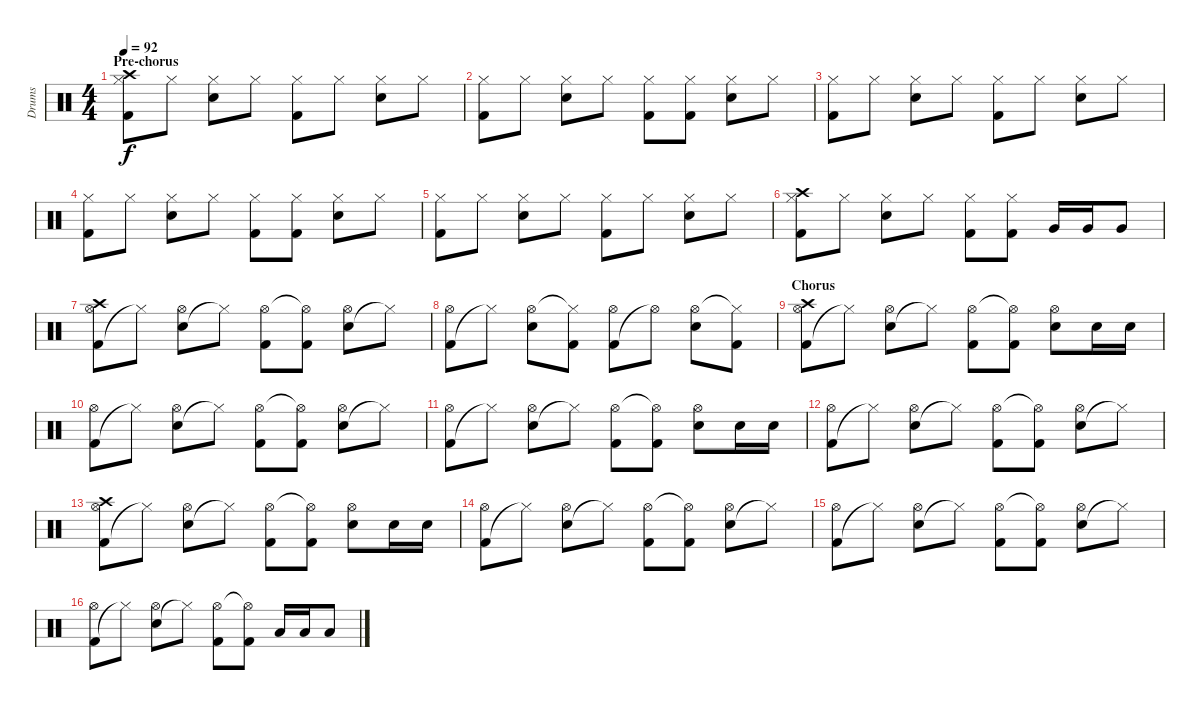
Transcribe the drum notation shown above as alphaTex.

\track ("Drums" "Drums") {instrument percussion}
\staff {score}
\articulation defaults
\ts (4 4)
\section ("" "Pre-chorus")
\tempo 92
\clef neutral
\ks c
("Kick (hit) 2" "Hi-Hat (closed)" "Crash high (hit)").8{dy f} "Hi-Hat (closed)".8 ("Electric Snare (hit)" "Hi-Hat (closed)").8 "Hi-Hat (closed)".8 ("Kick (hit) 2" "Hi-Hat (closed)").8 "Hi-Hat (closed)".8 ("Electric Snare (hit)" "Hi-Hat (closed)").8 "Hi-Hat (closed)".8 |
("Kick (hit) 2" "Hi-Hat (closed)").8 "Hi-Hat (closed)".8 ("Electric Snare (hit)" "Hi-Hat (closed)").8 "Hi-Hat (closed)".8 ("Kick (hit) 2" "Hi-Hat (closed)").8 ("Kick (hit) 2" "Hi-Hat (closed)").8 ("Electric Snare (hit)" "Hi-Hat (closed)").8 "Hi-Hat (closed)".8 |
("Kick (hit) 2" "Hi-Hat (closed)").8 "Hi-Hat (closed)".8 ("Electric Snare (hit)" "Hi-Hat (closed)").8 "Hi-Hat (closed)".8 ("Kick (hit) 2" "Hi-Hat (closed)").8 "Hi-Hat (closed)".8 ("Electric Snare (hit)" "Hi-Hat (closed)").8 "Hi-Hat (closed)".8 |
("Kick (hit) 2" "Hi-Hat (closed)").8 "Hi-Hat (closed)".8 ("Electric Snare (hit)" "Hi-Hat (closed)").8 "Hi-Hat (closed)".8 ("Kick (hit) 2" "Hi-Hat (closed)").8 ("Kick (hit) 2" "Hi-Hat (closed)").8 ("Electric Snare (hit)" "Hi-Hat (closed)").8 "Hi-Hat (closed)".8 |
("Kick (hit) 2" "Hi-Hat (closed)").8 "Hi-Hat (closed)".8 ("Electric Snare (hit)" "Hi-Hat (closed)").8 "Hi-Hat (closed)".8 ("Kick (hit) 2" "Hi-Hat (closed)").8 "Hi-Hat (closed)".8 ("Electric Snare (hit)" "Hi-Hat (closed)").8 "Hi-Hat (closed)".8 |
("Kick (hit) 2" "Hi-Hat (closed)" "Crash high (hit)").8 "Hi-Hat (closed)".8 ("Electric Snare (hit)" "Hi-Hat (closed)").8 "Hi-Hat (closed)".8 ("Kick (hit) 2" "Hi-Hat (closed)").8 ("Kick (hit) 2" "Hi-Hat (closed)").8 "Very Low Tom (hit)".16 "Very Low Tom (hit)".16 "Very Low Tom (hit)".8 |
("Kick (hit) 2" "Hi-Hat (open)" "Crash high (hit)").8 "Hi-Hat (closed)"{t}.8 ("Electric Snare (hit)" "Hi-Hat (open)").8 "Hi-Hat (closed)"{t}.8 ("Kick (hit) 2" "Hi-Hat (open)").8 ("Kick (hit) 2" "Hi-Hat (open)"{t}).8 ("Electric Snare (hit)" "Hi-Hat (open)").8 "Hi-Hat (closed)"{t}.8 |
("Kick (hit) 2" "Hi-Hat (open)").8 "Hi-Hat (closed)"{t}.8 ("Electric Snare (hit)" "Hi-Hat (open)").8 ("Kick (hit) 2" "Hi-Hat (closed)"{t}).8 ("Kick (hit) 2" "Hi-Hat (open)").8 "Hi-Hat (open)"{t}.8 ("Electric Snare (hit)" "Hi-Hat (open)").8 ("Kick (hit) 2" "Hi-Hat (closed)"{t}).8 |
\section ("" "Chorus")
("Kick (hit) 2" "Hi-Hat (open)" "Crash high (hit)").8 "Hi-Hat (closed)"{t}.8 ("Electric Snare (hit)" "Hi-Hat (open)").8 "Hi-Hat (closed)"{t}.8 ("Kick (hit) 2" "Hi-Hat (open)").8 ("Kick (hit) 2" "Hi-Hat (open)"{t}).8 ("Electric Snare (hit)" "Hi-Hat (open)").8 "Electric Snare (hit)".16 "Electric Snare (hit)".16 |
("Kick (hit) 2" "Hi-Hat (open)").8 "Hi-Hat (closed)"{t}.8 ("Electric Snare (hit)" "Hi-Hat (open)").8 "Hi-Hat (closed)"{t}.8 ("Kick (hit) 2" "Hi-Hat (open)").8 ("Kick (hit) 2" "Hi-Hat (open)"{t}).8 ("Electric Snare (hit)" "Hi-Hat (open)").8 "Hi-Hat (closed)"{t}.8 |
("Kick (hit) 2" "Hi-Hat (open)").8 "Hi-Hat (closed)"{t}.8 ("Electric Snare (hit)" "Hi-Hat (open)").8 "Hi-Hat (closed)"{t}.8 ("Kick (hit) 2" "Hi-Hat (open)").8 ("Kick (hit) 2" "Hi-Hat (open)"{t}).8 ("Electric Snare (hit)" "Hi-Hat (open)").8 "Electric Snare (hit)".16 "Electric Snare (hit)".16 |
("Kick (hit) 2" "Hi-Hat (open)").8 "Hi-Hat (closed)"{t}.8 ("Electric Snare (hit)" "Hi-Hat (open)").8 "Hi-Hat (closed)"{t}.8 ("Kick (hit) 2" "Hi-Hat (open)").8 ("Kick (hit) 2" "Hi-Hat (open)"{t}).8 ("Electric Snare (hit)" "Hi-Hat (open)").8 "Hi-Hat (closed)"{t}.8 |
("Kick (hit) 2" "Hi-Hat (open)" "Crash high (hit)").8 "Hi-Hat (closed)"{t}.8 ("Electric Snare (hit)" "Hi-Hat (open)").8 "Hi-Hat (closed)"{t}.8 ("Kick (hit) 2" "Hi-Hat (open)").8 ("Kick (hit) 2" "Hi-Hat (open)"{t}).8 ("Electric Snare (hit)" "Hi-Hat (open)").8 "Electric Snare (hit)".16 "Electric Snare (hit)".16 |
("Kick (hit) 2" "Hi-Hat (open)").8 "Hi-Hat (closed)"{t}.8 ("Electric Snare (hit)" "Hi-Hat (open)").8 "Hi-Hat (closed)"{t}.8 ("Kick (hit) 2" "Hi-Hat (open)").8 ("Kick (hit) 2" "Hi-Hat (open)"{t}).8 ("Electric Snare (hit)" "Hi-Hat (open)").8 "Hi-Hat (closed)"{t}.8 |
("Kick (hit) 2" "Hi-Hat (open)").8 "Hi-Hat (closed)"{t}.8 ("Electric Snare (hit)" "Hi-Hat (open)").8 "Hi-Hat (closed)"{t}.8 ("Kick (hit) 2" "Hi-Hat (open)").8 ("Kick (hit) 2" "Hi-Hat (open)"{t}).8 ("Electric Snare (hit)" "Hi-Hat (open)").8 "Hi-Hat (closed)"{t}.8 |
("Kick (hit) 2" "Hi-Hat (open)").8 "Hi-Hat (closed)"{t}.8 ("Electric Snare (hit)" "Hi-Hat (open)").8 "Hi-Hat (closed)"{t}.8 ("Kick (hit) 2" "Hi-Hat (open)").8 ("Kick (hit) 2" "Hi-Hat (open)"{t}).8 "Low Floor Tom (hit)".16 "Low Floor Tom (hit)".16 "Low Floor Tom (hit)".8
